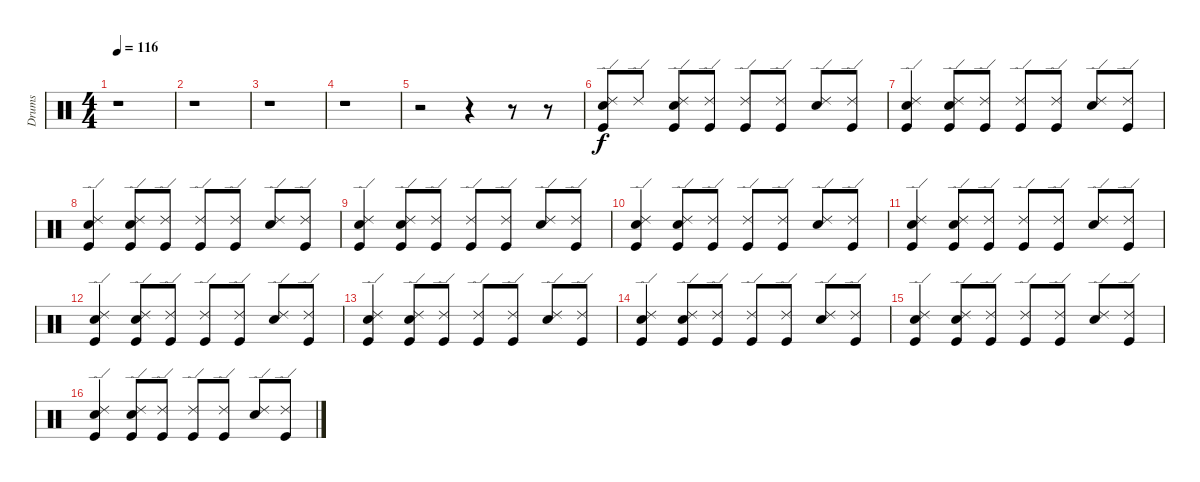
\track ("Drums" "Drums") {instrument percussion}
\staff {score}
\articulation defaults
\ts (4 4)
\tempo 116
\clef neutral
\ks c
r.1{dy f} |
r.1 |
r.1 |
r.1 |
r.2 r.4 r.8 r.8 |
("Kick (hit)" "Ride (edge) 2" "Snare (hit) 2").8 "Ride (edge) 2".8 ("Kick (hit)" "Ride (edge) 2" "Snare (hit) 2").8 ("Kick (hit)" "Ride (edge) 2").8 ("Kick (hit)" "Ride (edge) 2").8 ("Kick (hit)" "Ride (edge) 2").8 ("Snare (hit) 2" "Ride (edge) 2").8 ("Kick (hit)" "Ride (edge) 2").8 |
("Kick (hit)" "Ride (edge) 2" "Snare (hit) 2").4 ("Kick (hit)" "Ride (edge) 2" "Snare (hit) 2").8 ("Kick (hit)" "Ride (edge) 2").8 ("Kick (hit)" "Ride (edge) 2").8 ("Kick (hit)" "Ride (edge) 2").8 ("Snare (hit) 2" "Ride (edge) 2").8 ("Kick (hit)" "Ride (edge) 2").8 |
("Kick (hit)" "Ride (edge) 2" "Snare (hit) 2").4 ("Kick (hit)" "Ride (edge) 2" "Snare (hit) 2").8 ("Kick (hit)" "Ride (edge) 2").8 ("Kick (hit)" "Ride (edge) 2").8 ("Kick (hit)" "Ride (edge) 2").8 ("Snare (hit) 2" "Ride (edge) 2").8 ("Kick (hit)" "Ride (edge) 2").8 |
("Kick (hit)" "Ride (edge) 2" "Snare (hit) 2").4 ("Kick (hit)" "Ride (edge) 2" "Snare (hit) 2").8 ("Kick (hit)" "Ride (edge) 2").8 ("Kick (hit)" "Ride (edge) 2").8 ("Kick (hit)" "Ride (edge) 2").8 ("Snare (hit) 2" "Ride (edge) 2").8 ("Kick (hit)" "Ride (edge) 2").8 |
("Kick (hit)" "Ride (edge) 2" "Snare (hit) 2").4 ("Kick (hit)" "Ride (edge) 2" "Snare (hit) 2").8 ("Kick (hit)" "Ride (edge) 2").8 ("Kick (hit)" "Ride (edge) 2").8 ("Kick (hit)" "Ride (edge) 2").8 ("Snare (hit) 2" "Ride (edge) 2").8 ("Kick (hit)" "Ride (edge) 2").8 |
("Kick (hit)" "Ride (edge) 2" "Snare (hit) 2").4 ("Kick (hit)" "Ride (edge) 2" "Snare (hit) 2").8 ("Kick (hit)" "Ride (edge) 2").8 ("Kick (hit)" "Ride (edge) 2").8 ("Kick (hit)" "Ride (edge) 2").8 ("Snare (hit) 2" "Ride (edge) 2").8 ("Kick (hit)" "Ride (edge) 2").8 |
("Kick (hit)" "Ride (edge) 2" "Snare (hit) 2").4 ("Kick (hit)" "Ride (edge) 2" "Snare (hit) 2").8 ("Kick (hit)" "Ride (edge) 2").8 ("Kick (hit)" "Ride (edge) 2").8 ("Kick (hit)" "Ride (edge) 2").8 ("Snare (hit) 2" "Ride (edge) 2").8 ("Kick (hit)" "Ride (edge) 2").8 |
("Kick (hit)" "Ride (edge) 2" "Snare (hit) 2").4 ("Kick (hit)" "Ride (edge) 2" "Snare (hit) 2").8 ("Kick (hit)" "Ride (edge) 2").8 ("Kick (hit)" "Ride (edge) 2").8 ("Kick (hit)" "Ride (edge) 2").8 ("Snare (hit) 2" "Ride (edge) 2").8 ("Kick (hit)" "Ride (edge) 2").8 |
("Kick (hit)" "Ride (edge) 2" "Snare (hit) 2").4 ("Kick (hit)" "Ride (edge) 2" "Snare (hit) 2").8 ("Kick (hit)" "Ride (edge) 2").8 ("Kick (hit)" "Ride (edge) 2").8 ("Kick (hit)" "Ride (edge) 2").8 ("Snare (hit) 2" "Ride (edge) 2").8 ("Kick (hit)" "Ride (edge) 2").8 |
("Kick (hit)" "Ride (edge) 2" "Snare (hit) 2").4 ("Kick (hit)" "Ride (edge) 2" "Snare (hit) 2").8 ("Kick (hit)" "Ride (edge) 2").8 ("Kick (hit)" "Ride (edge) 2").8 ("Kick (hit)" "Ride (edge) 2").8 ("Snare (hit) 2" "Ride (edge) 2").8 ("Kick (hit)" "Ride (edge) 2").8 |
("Kick (hit)" "Ride (edge) 2" "Snare (hit) 2").4 ("Kick (hit)" "Ride (edge) 2" "Snare (hit) 2").8 ("Kick (hit)" "Ride (edge) 2").8 ("Kick (hit)" "Ride (edge) 2").8 ("Kick (hit)" "Ride (edge) 2").8 ("Snare (hit) 2" "Ride (edge) 2").8 ("Kick (hit)" "Ride (edge) 2").8
